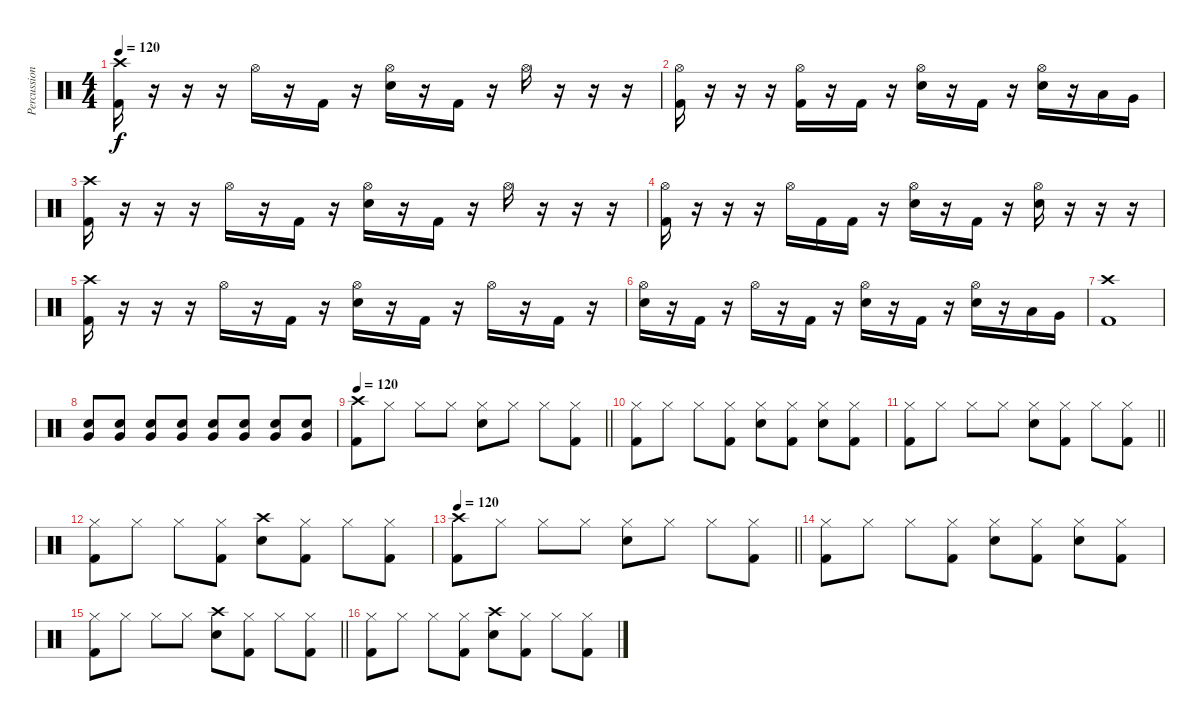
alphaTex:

\track ("Percussion" "Percussion") {instrument percussion}
\staff {score}
\articulation defaults
\ts (4 4)
\tempo 120
\clef neutral
\ks c
("Crash high (hit)" "Kick (hit) 2").16{dy f} r.16 r.16 r.16 "Hi-Hat (open)".16 r.16 "Kick (hit) 2".16 r.16 ("Hi-Hat (open)" "Electric Snare (hit)").16 r.16 "Kick (hit) 2".16 r.16 "Hi-Hat (open)".16 r.16 r.16 r.16 |
("Hi-Hat (open)" "Kick (hit) 2").16 r.16 r.16 r.16 ("Hi-Hat (open)" "Kick (hit) 2").16 r.16 "Kick (hit) 2".16 r.16 ("Hi-Hat (open)" "Electric Snare (hit)").16 r.16 "Kick (hit) 2".16 r.16 ("Hi-Hat (open)" "Electric Snare (hit)").16 r.16 "Low Floor Tom (hit)".16 "Very Low Tom (hit)".16 |
("Crash high (hit)" "Kick (hit) 2").16 r.16 r.16 r.16 "Hi-Hat (open)".16 r.16 "Kick (hit) 2".16 r.16 ("Hi-Hat (open)" "Electric Snare (hit)").16 r.16 "Kick (hit) 2".16 r.16 "Hi-Hat (open)".16 r.16 r.16 r.16 |
("Hi-Hat (open)" "Kick (hit) 2").16 r.16 r.16 r.16 "Hi-Hat (open)".16 "Kick (hit) 2".16 "Kick (hit) 2".16 r.16 ("Hi-Hat (open)" "Electric Snare (hit)").16 r.16 "Kick (hit) 2".16 r.16 ("Hi-Hat (open)" "Electric Snare (hit)").16 r.16 r.16 r.16 |
("Crash high (hit)" "Kick (hit) 2").16 r.16 r.16 r.16 "Hi-Hat (open)".16 r.16 "Kick (hit) 2".16 r.16 ("Hi-Hat (open)" "Electric Snare (hit)").16 r.16 "Kick (hit) 2".16 r.16 "Hi-Hat (open)".16 r.16 "Kick (hit) 2".16 r.16 |
("Hi-Hat (open)" "Electric Snare (hit)").16 r.16 "Kick (hit) 2".16 r.16 "Hi-Hat (open)".16 r.16 "Kick (hit) 2".16 r.16 ("Hi-Hat (open)" "Electric Snare (hit)").16 r.16 "Kick (hit) 2".16 r.16 ("Hi-Hat (open)" "Electric Snare (hit)").16 r.16 "Low Floor Tom (hit)".16 "Very Low Tom (hit)".16 |
("Crash high (hit)" "Kick (hit) 2").1 |
("Very Low Tom (hit)" "Snare (hit) 2").8 ("Very Low Tom (hit)" "Snare (hit) 2").8 ("Very Low Tom (hit)" "Snare (hit) 2").8 ("Very Low Tom (hit)" "Snare (hit) 2").8 ("Very Low Tom (hit)" "Snare (hit) 2").8 ("Very Low Tom (hit)" "Snare (hit) 2").8 ("Very Low Tom (hit)" "Snare (hit) 2").8 ("Very Low Tom (hit)" "Snare (hit) 2").8 |
\tempo 120
\barLineRight lightlight
("Crash high (hit)" "Kick (hit) 2").8 "Hi-Hat (closed)".8 "Hi-Hat (closed)".8 "Hi-Hat (closed)".8 ("Hi-Hat (closed)" "Electric Snare (hit)").8 "Hi-Hat (closed)".8 "Hi-Hat (closed)".8 ("Hi-Hat (closed)" "Kick (hit) 2").8 |
("Hi-Hat (closed)" "Kick (hit) 2").8 "Hi-Hat (closed)".8 "Hi-Hat (closed)".8 ("Hi-Hat (closed)" "Kick (hit) 2").8 ("Hi-Hat (closed)" "Electric Snare (hit)").8 ("Hi-Hat (closed)" "Kick (hit) 2").8 ("Hi-Hat (closed)" "Electric Snare (hit)").8 ("Hi-Hat (closed)" "Kick (hit) 2").8 |
\barLineRight lightlight
("Hi-Hat (closed)" "Kick (hit) 2").8 "Hi-Hat (closed)".8 "Hi-Hat (closed)".8 "Hi-Hat (closed)".8 ("Hi-Hat (closed)" "Electric Snare (hit)").8 ("Hi-Hat (closed)" "Kick (hit) 2").8 "Hi-Hat (closed)".8 ("Hi-Hat (closed)" "Kick (hit) 2").8 |
("Hi-Hat (closed)" "Kick (hit) 2").8 "Hi-Hat (closed)".8 "Hi-Hat (closed)".8 ("Hi-Hat (closed)" "Kick (hit) 2").8 ("Crash high (hit)" "Electric Snare (hit)").8 ("Hi-Hat (closed)" "Kick (hit) 2").8 "Hi-Hat (closed)".8 ("Hi-Hat (closed)" "Kick (hit) 2").8 |
\tempo 120
\barLineRight lightlight
("Crash high (hit)" "Kick (hit) 2").8 "Hi-Hat (closed)".8 "Hi-Hat (closed)".8 "Hi-Hat (closed)".8 ("Hi-Hat (closed)" "Electric Snare (hit)").8 "Hi-Hat (closed)".8 "Hi-Hat (closed)".8 ("Hi-Hat (closed)" "Kick (hit) 2").8 |
("Hi-Hat (closed)" "Kick (hit) 2").8 "Hi-Hat (closed)".8 "Hi-Hat (closed)".8 ("Hi-Hat (closed)" "Kick (hit) 2").8 ("Hi-Hat (closed)" "Electric Snare (hit)").8 ("Hi-Hat (closed)" "Kick (hit) 2").8 ("Hi-Hat (closed)" "Electric Snare (hit)").8 ("Hi-Hat (closed)" "Kick (hit) 2").8 |
\barLineRight lightlight
("Hi-Hat (closed)" "Kick (hit) 2").8 "Hi-Hat (closed)".8 "Hi-Hat (closed)".8 "Hi-Hat (closed)".8 ("Crash high (hit)" "Electric Snare (hit)").8 ("Hi-Hat (closed)" "Kick (hit) 2").8 "Hi-Hat (closed)".8 ("Hi-Hat (closed)" "Kick (hit) 2").8 |
("Hi-Hat (closed)" "Kick (hit) 2").8 "Hi-Hat (closed)".8 "Hi-Hat (closed)".8 ("Hi-Hat (closed)" "Kick (hit) 2").8 ("Crash high (hit)" "Electric Snare (hit)").8 ("Hi-Hat (closed)" "Kick (hit) 2").8 "Hi-Hat (closed)".8 ("Hi-Hat (closed)" "Kick (hit) 2").8
